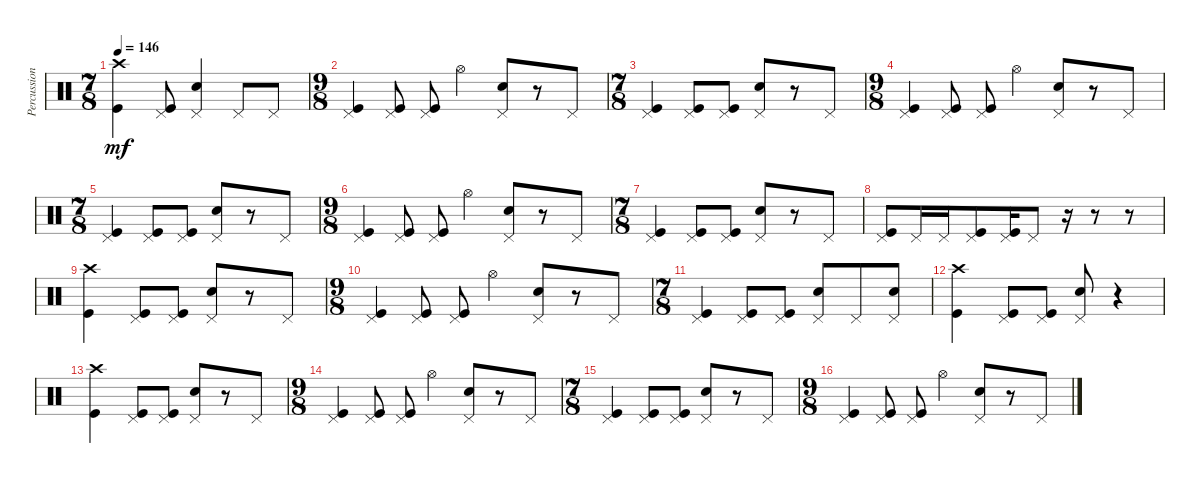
\track ("Percussion" "Percussion") {instrument percussion}
\staff {score}
\articulation defaults
\ts (7 8)
\tempo 146
\clef neutral
\ks c
("Crash high (hit)" "Kick (hit)").4{dy mf} ("Pedal Hi-Hat (hit)" "Kick (hit)").8 ("Pedal Hi-Hat (hit)" "Snare (hit) 2").4 "Pedal Hi-Hat (hit)".8 "Pedal Hi-Hat (hit)".8 |
\ts (9 8)
("Pedal Hi-Hat (hit)" "Kick (hit)").4 ("Pedal Hi-Hat (hit)" "Kick (hit)").8 ("Pedal Hi-Hat (hit)" "Kick (hit)").8 "Hi-Hat (open)".4 ("Pedal Hi-Hat (hit)" "Snare (hit) 2").8 r.8 "Pedal Hi-Hat (hit)".8 |
\ts (7 8)
("Pedal Hi-Hat (hit)" "Kick (hit)").4 ("Pedal Hi-Hat (hit)" "Kick (hit)").8 ("Pedal Hi-Hat (hit)" "Kick (hit)").8 ("Pedal Hi-Hat (hit)" "Snare (hit) 2").8 r.8 "Pedal Hi-Hat (hit)".8 |
\ts (9 8)
("Pedal Hi-Hat (hit)" "Kick (hit)").4 ("Pedal Hi-Hat (hit)" "Kick (hit)").8 ("Pedal Hi-Hat (hit)" "Kick (hit)").8 "Hi-Hat (open)".4 ("Pedal Hi-Hat (hit)" "Snare (hit) 2").8 r.8 "Pedal Hi-Hat (hit)".8 |
\ts (7 8)
("Pedal Hi-Hat (hit)" "Kick (hit)").4 ("Pedal Hi-Hat (hit)" "Kick (hit)").8 ("Pedal Hi-Hat (hit)" "Kick (hit)").8 ("Pedal Hi-Hat (hit)" "Snare (hit) 2").8 r.8 "Pedal Hi-Hat (hit)".8 |
\ts (9 8)
("Pedal Hi-Hat (hit)" "Kick (hit)").4 ("Pedal Hi-Hat (hit)" "Kick (hit)").8 ("Pedal Hi-Hat (hit)" "Kick (hit)").8 "Hi-Hat (open)".4 ("Pedal Hi-Hat (hit)" "Snare (hit) 2").8 r.8 "Pedal Hi-Hat (hit)".8 |
\ts (7 8)
("Pedal Hi-Hat (hit)" "Kick (hit)").4 ("Pedal Hi-Hat (hit)" "Kick (hit)").8 ("Pedal Hi-Hat (hit)" "Kick (hit)").8 ("Pedal Hi-Hat (hit)" "Snare (hit) 2").8 r.8 "Pedal Hi-Hat (hit)".8 |
("Pedal Hi-Hat (hit)" "Kick (hit)").8 "Pedal Hi-Hat (hit)".16 "Pedal Hi-Hat (hit)".16 ("Pedal Hi-Hat (hit)" "Kick (hit)").8 ("Pedal Hi-Hat (hit)" "Kick (hit)").16 "Pedal Hi-Hat (hit)".8 r.16 r.8 r.8 |
("Crash high (hit)" "Kick (hit)").4 ("Pedal Hi-Hat (hit)" "Kick (hit)").8 ("Pedal Hi-Hat (hit)" "Kick (hit)").8 ("Pedal Hi-Hat (hit)" "Snare (hit) 2").8 r.8 "Pedal Hi-Hat (hit)".8 |
\ts (9 8)
("Pedal Hi-Hat (hit)" "Kick (hit)").4 ("Pedal Hi-Hat (hit)" "Kick (hit)").8 ("Pedal Hi-Hat (hit)" "Kick (hit)").8 "Hi-Hat (open)".4 ("Pedal Hi-Hat (hit)" "Snare (hit) 2").8 r.8 "Pedal Hi-Hat (hit)".8 |
\ts (7 8)
("Pedal Hi-Hat (hit)" "Kick (hit)").4 ("Pedal Hi-Hat (hit)" "Kick (hit)").8 ("Pedal Hi-Hat (hit)" "Kick (hit)").8 ("Pedal Hi-Hat (hit)" "Snare (hit) 2").8 "Pedal Hi-Hat (hit)".8 ("Pedal Hi-Hat (hit)" "Snare (hit) 2").8 |
("Crash high (hit)" "Kick (hit)").4 ("Pedal Hi-Hat (hit)" "Kick (hit)").8 ("Pedal Hi-Hat (hit)" "Kick (hit)").8 ("Pedal Hi-Hat (hit)" "Snare (hit) 2").8 r.4 |
("Crash high (hit)" "Kick (hit)").4 ("Pedal Hi-Hat (hit)" "Kick (hit)").8 ("Pedal Hi-Hat (hit)" "Kick (hit)").8 ("Pedal Hi-Hat (hit)" "Snare (hit) 2").8 r.8 "Pedal Hi-Hat (hit)".8 |
\ts (9 8)
("Pedal Hi-Hat (hit)" "Kick (hit)").4 ("Pedal Hi-Hat (hit)" "Kick (hit)").8 ("Pedal Hi-Hat (hit)" "Kick (hit)").8 "Hi-Hat (open)".4 ("Pedal Hi-Hat (hit)" "Snare (hit) 2").8 r.8 "Pedal Hi-Hat (hit)".8 |
\ts (7 8)
("Pedal Hi-Hat (hit)" "Kick (hit)").4 ("Pedal Hi-Hat (hit)" "Kick (hit)").8 ("Pedal Hi-Hat (hit)" "Kick (hit)").8 ("Pedal Hi-Hat (hit)" "Snare (hit) 2").8 r.8 "Pedal Hi-Hat (hit)".8 |
\ts (9 8)
("Pedal Hi-Hat (hit)" "Kick (hit)").4 ("Pedal Hi-Hat (hit)" "Kick (hit)").8 ("Pedal Hi-Hat (hit)" "Kick (hit)").8 "Hi-Hat (open)".4 ("Pedal Hi-Hat (hit)" "Snare (hit) 2").8 r.8 "Pedal Hi-Hat (hit)".8
